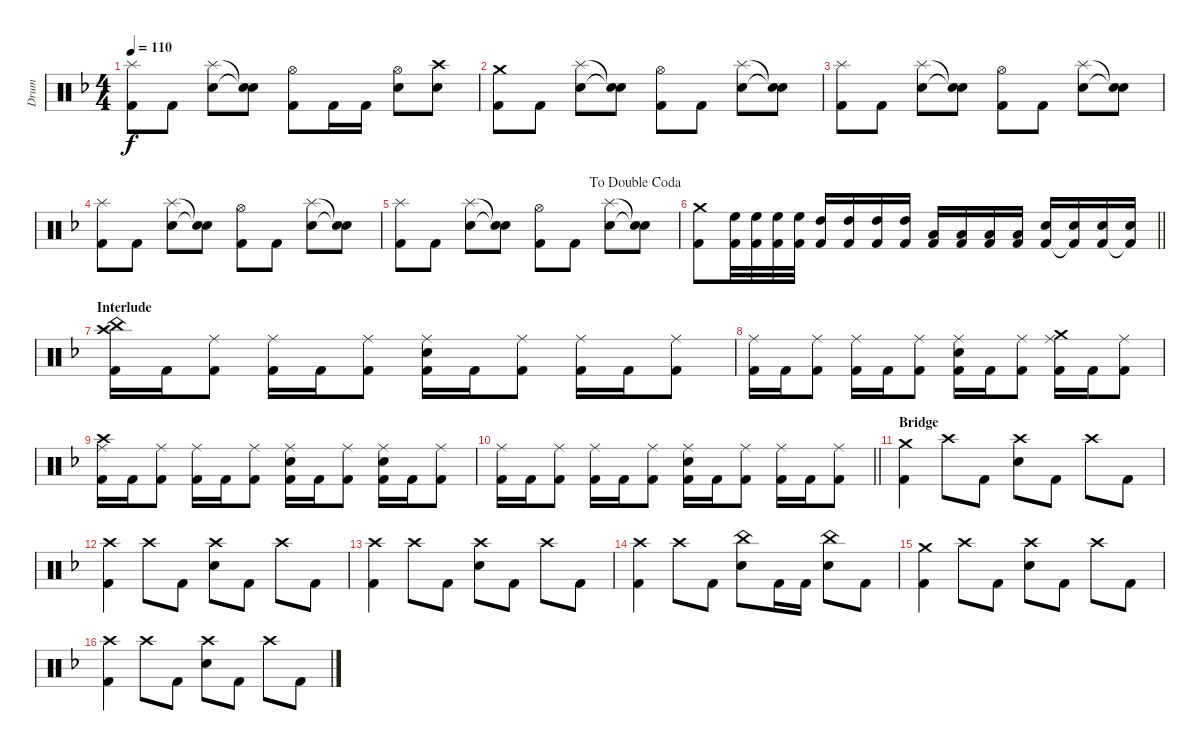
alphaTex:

\track ("Drum" "Drum") {instrument percussion}
\staff {score}
\articulation defaults
\ts (4 4)
\tempo 110
\clef neutral
\ks f
("Splash (hit)" "Kick (hit) 2").8{dy f} "Kick (hit) 2".8 ("Splash (hit)" "Electric Snare (hit)").8 ("Snare (hit)"{t} "Snare (hit)"{t}).8 ("Hi-Hat (open)" "Kick (hit) 2").8 "Kick (hit) 2".16 "Kick (hit) 2".16 ("Hi-Hat (open)" "Electric Snare (hit)").8 ("Crash high (hit)" "Electric Snare (hit)").8 |
("Crash medium (hit)" "Kick (hit) 2").8 "Kick (hit) 2".8 ("Splash (hit)" "Electric Snare (hit)").8 ("Snare (hit)"{t} "Snare (hit)"{t}).8 ("Hi-Hat (open)" "Kick (hit) 2").8 "Kick (hit) 2".8 ("Splash (hit)" "Electric Snare (hit)").8 ("Snare (hit)"{t} "Snare (hit)"{t}).8 |
("Splash (hit)" "Kick (hit) 2").8 "Kick (hit) 2".8 ("Splash (hit)" "Electric Snare (hit)").8 ("Snare (hit)"{t} "Snare (hit)"{t}).8 ("Hi-Hat (open)" "Kick (hit) 2").8 "Kick (hit) 2".8 ("Splash (hit)" "Electric Snare (hit)").8 ("Snare (hit)"{t} "Snare (hit)"{t}).8 |
("Splash (hit)" "Kick (hit) 2").8 "Kick (hit) 2".8 ("Splash (hit)" "Electric Snare (hit)").8 ("Snare (hit)"{t} "Snare (hit)"{t}).8 ("Hi-Hat (open)" "Kick (hit) 2").8 "Kick (hit) 2".8 ("Splash (hit)" "Electric Snare (hit)").8 ("Snare (hit)"{t} "Snare (hit)"{t}).8 |
\jump dadoublecoda
("Splash (hit)" "Kick (hit) 2").8 "Kick (hit) 2".8 ("Splash (hit)" "Electric Snare (hit)").8 ("Snare (hit)"{t} "Snare (hit)"{t}).8 ("Hi-Hat (open)" "Kick (hit) 2").8 "Kick (hit) 2".8 ("Splash (hit)" "Electric Snare (hit)").8 ("Snare (hit)"{t} "Snare (hit)"{t}).8 |
\barLineRight lightlight
("Crash medium (hit)" "Kick (hit) 2").8 ("High Floor Tom (hit)" "Kick (hit) 2").32 ("High Floor Tom (hit)" "Kick (hit) 2").32 ("High Floor Tom (hit)" "Kick (hit) 2").32 ("High Floor Tom (hit)" "Kick (hit) 2").32 ("High Tom (hit)" "Kick (hit) 2").16 ("High Tom (hit)" "Kick (hit) 2").16 ("High Tom (hit)" "Kick (hit) 2").16 ("High Tom (hit)" "Kick (hit) 2").16 ("Low Tom (hit)" "Kick (hit) 2").16 ("Low Tom (hit)" "Kick (hit) 2").16 ("Low Tom (hit)" "Kick (hit) 2").16 ("Low Tom (hit)" "Kick (hit) 2").16 ("Electric Snare (hit)" "Kick (hit) 2").16 ("Electric Snare (hit)" "Kick (hit) 2"{t}).16 ("Electric Snare (hit)" "Kick (hit) 2").16 ("Electric Snare (hit)" "Kick (hit) 2"{t}).16 |
\section ("" "Interlude")
("China (hit)" "Crash high (hit)" "Kick (hit) 2").16 "Kick (hit) 2".16 ("Ride (middle)" "Kick (hit) 2").8 ("Ride (middle)" "Kick (hit) 2").16 "Kick (hit) 2".16 ("Ride (middle)" "Kick (hit) 2").8 ("Ride (middle)" "Electric Snare (hit)" "Kick (hit) 2").16 "Kick (hit) 2".16 ("Ride (middle)" "Kick (hit) 2").8 ("Ride (middle)" "Kick (hit) 2").16 "Kick (hit) 2".16 ("Ride (middle)" "Kick (hit) 2").8 |
("Ride (middle)" "Kick (hit) 2").16 "Kick (hit) 2".16 ("Ride (middle)" "Kick (hit) 2").8 ("Ride (middle)" "Kick (hit) 2").16 "Kick (hit) 2".16 ("Ride (middle)" "Kick (hit) 2").8 ("Ride (middle)" "Electric Snare (hit)" "Kick (hit) 2").16 "Kick (hit) 2".16 ("Ride (middle)" "Kick (hit) 2").8 ("Ride (middle)" "Crash medium (hit)" "Kick (hit) 2").16 "Kick (hit) 2".16 ("Ride (middle)" "Kick (hit) 2").8 |
("Ride (middle)" "Crash high (hit)" "Kick (hit) 2").16 "Kick (hit) 2".16 ("Ride (middle)" "Kick (hit) 2").8 ("Ride (middle)" "Kick (hit) 2").16 "Kick (hit) 2".16 ("Ride (middle)" "Kick (hit) 2").8 ("Ride (middle)" "Electric Snare (hit)" "Kick (hit) 2").16 "Kick (hit) 2".16 ("Ride (middle)" "Kick (hit) 2").8 ("Ride (middle)" "Snare (hit)" "Kick (hit) 2").16 "Kick (hit) 2".16 ("Ride (middle)" "Kick (hit) 2").8 |
\barLineRight lightlight
("Ride (middle)" "Kick (hit) 2").16 "Kick (hit) 2".16 ("Ride (middle)" "Kick (hit) 2").8 ("Ride (middle)" "Kick (hit) 2").16 "Kick (hit) 2".16 ("Ride (middle)" "Kick (hit) 2").8 ("Ride (middle)" "Electric Snare (hit)" "Kick (hit) 2").16 "Kick (hit) 2".16 ("Ride (middle)" "Kick (hit) 2").8 ("Ride (middle)" "Kick (hit) 2").16 "Kick (hit) 2".16 ("Ride (middle)" "Kick (hit) 2").8 |
\section ("" "Bridge")
("Crash medium (hit)" "Kick (hit) 2").4 "Crash high (hit)".8 "Kick (hit) 2".8 ("Crash high (hit)" "Electric Snare (hit)").8 "Kick (hit) 2".8 "Crash high (hit)".8 "Kick (hit) 2".8 |
("Crash high (hit)" "Kick (hit) 2").4 "Crash high (hit)".8 "Kick (hit) 2".8 ("Crash high (hit)" "Electric Snare (hit)").8 "Kick (hit) 2".8 "Crash high (hit)".8 "Kick (hit) 2".8 |
("Crash high (hit)" "Kick (hit) 2").4 "Crash high (hit)".8 "Kick (hit) 2".8 ("Crash high (hit)" "Electric Snare (hit)").8 "Kick (hit) 2".8 "Crash high (hit)".8 "Kick (hit) 2".8 |
("Crash high (hit)" "Kick (hit) 2").4 "Crash high (hit)".8 "Kick (hit) 2".8 ("China (hit)" "Electric Snare (hit)").8 "Kick (hit) 2".16 "Kick (hit) 2".16 ("China (hit)" "Electric Snare (hit)").8 "Kick (hit) 2".8 |
("Crash medium (hit)" "Kick (hit) 2").4 "Crash high (hit)".8 "Kick (hit) 2".8 ("Crash high (hit)" "Electric Snare (hit)").8 "Kick (hit) 2".8 "Crash high (hit)".8 "Kick (hit) 2".8 |
("Crash high (hit)" "Kick (hit) 2").4 "Crash high (hit)".8 "Kick (hit) 2".8 ("Crash high (hit)" "Electric Snare (hit)").8 "Kick (hit) 2".8 "Crash high (hit)".8 "Kick (hit) 2".8
